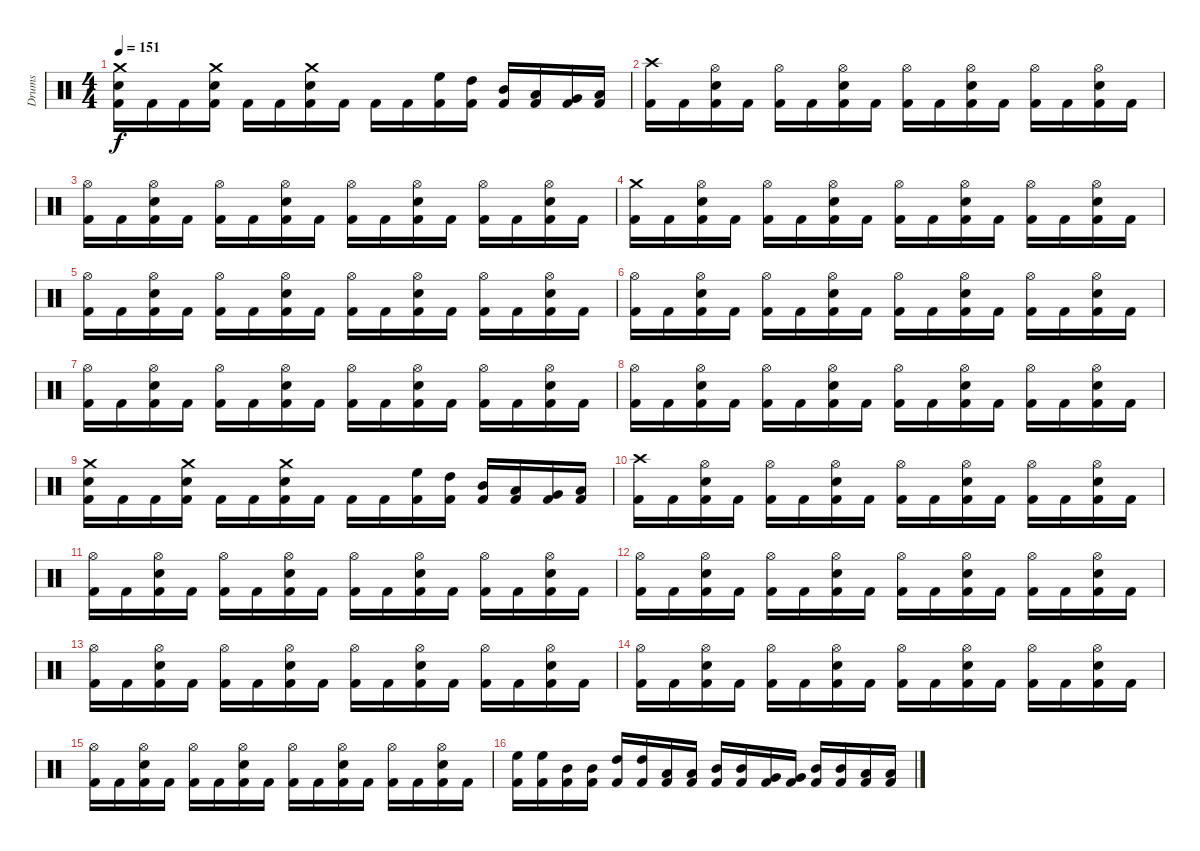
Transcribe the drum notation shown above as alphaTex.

\track ("Drums" "Drums") {instrument percussion}
\staff {score}
\articulation defaults
\ts (4 4)
\tempo 151
\clef neutral
\ks c
("Kick (hit) 2" "Snare (hit) 2" "Crash medium (hit)").16{dy f} "Kick (hit) 2".16 "Kick (hit) 2".16 ("Kick (hit) 2" "Snare (hit) 2" "Crash medium (hit)").16 "Kick (hit) 2".16 "Kick (hit) 2".16 ("Kick (hit) 2" "Snare (hit) 2" "Crash medium (hit)").16 "Kick (hit) 2".16 "Kick (hit) 2".16 "Kick (hit) 2".16 ("Kick (hit) 2" "High Floor Tom (hit)").16 ("Kick (hit) 2" "High Tom (hit)").16 ("Kick (hit) 2" "Mid Tom (hit)").16 ("Kick (hit) 2" "Low Tom (hit)").16 ("Kick (hit) 2" "Very Low Tom (hit)").16 ("Kick (hit) 2" "Low Floor Tom (hit)").16 |
("Kick (hit) 2" "Crash high (hit)").16 "Kick (hit) 2".16 ("Kick (hit) 2" "Snare (hit) 2" "Hi-Hat (open)").16 "Kick (hit) 2".16 ("Kick (hit) 2" "Hi-Hat (open)").16 "Kick (hit) 2".16 ("Kick (hit) 2" "Snare (hit) 2" "Hi-Hat (open)").16 "Kick (hit) 2".16 ("Kick (hit) 2" "Hi-Hat (open)").16 "Kick (hit) 2".16 ("Kick (hit) 2" "Snare (hit) 2" "Hi-Hat (open)").16 "Kick (hit) 2".16 ("Kick (hit) 2" "Hi-Hat (open)").16 "Kick (hit) 2".16 ("Kick (hit) 2" "Snare (hit) 2" "Hi-Hat (open)").16 "Kick (hit) 2".16 |
("Kick (hit) 2" "Hi-Hat (open)").16 "Kick (hit) 2".16 ("Kick (hit) 2" "Snare (hit) 2" "Hi-Hat (open)").16 "Kick (hit) 2".16 ("Kick (hit) 2" "Hi-Hat (open)").16 "Kick (hit) 2".16 ("Kick (hit) 2" "Snare (hit) 2" "Hi-Hat (open)").16 "Kick (hit) 2".16 ("Kick (hit) 2" "Hi-Hat (open)").16 "Kick (hit) 2".16 ("Kick (hit) 2" "Snare (hit) 2" "Hi-Hat (open)").16 "Kick (hit) 2".16 ("Kick (hit) 2" "Hi-Hat (open)").16 "Kick (hit) 2".16 ("Kick (hit) 2" "Snare (hit) 2" "Hi-Hat (open)").16 "Kick (hit) 2".16 |
("Kick (hit) 2" "Crash medium (hit)").16 "Kick (hit) 2".16 ("Kick (hit) 2" "Snare (hit) 2" "Hi-Hat (open)").16 "Kick (hit) 2".16 ("Kick (hit) 2" "Hi-Hat (open)").16 "Kick (hit) 2".16 ("Kick (hit) 2" "Snare (hit) 2" "Hi-Hat (open)").16 "Kick (hit) 2".16 ("Kick (hit) 2" "Hi-Hat (open)").16 "Kick (hit) 2".16 ("Kick (hit) 2" "Snare (hit) 2" "Hi-Hat (open)").16 "Kick (hit) 2".16 ("Kick (hit) 2" "Hi-Hat (open)").16 "Kick (hit) 2".16 ("Kick (hit) 2" "Snare (hit) 2" "Hi-Hat (open)").16 "Kick (hit) 2".16 |
("Kick (hit) 2" "Hi-Hat (open)").16 "Kick (hit) 2".16 ("Kick (hit) 2" "Snare (hit) 2" "Hi-Hat (open)").16 "Kick (hit) 2".16 ("Kick (hit) 2" "Hi-Hat (open)").16 "Kick (hit) 2".16 ("Kick (hit) 2" "Snare (hit) 2" "Hi-Hat (open)").16 "Kick (hit) 2".16 ("Kick (hit) 2" "Hi-Hat (open)").16 "Kick (hit) 2".16 ("Kick (hit) 2" "Snare (hit) 2" "Hi-Hat (open)").16 "Kick (hit) 2".16 ("Kick (hit) 2" "Hi-Hat (open)").16 "Kick (hit) 2".16 ("Kick (hit) 2" "Snare (hit) 2" "Hi-Hat (open)").16 "Kick (hit) 2".16 |
("Kick (hit) 2" "Hi-Hat (open)").16 "Kick (hit) 2".16 ("Kick (hit) 2" "Snare (hit) 2" "Hi-Hat (open)").16 "Kick (hit) 2".16 ("Kick (hit) 2" "Hi-Hat (open)").16 "Kick (hit) 2".16 ("Kick (hit) 2" "Snare (hit) 2" "Hi-Hat (open)").16 "Kick (hit) 2".16 ("Kick (hit) 2" "Hi-Hat (open)").16 "Kick (hit) 2".16 ("Kick (hit) 2" "Snare (hit) 2" "Hi-Hat (open)").16 "Kick (hit) 2".16 ("Kick (hit) 2" "Hi-Hat (open)").16 "Kick (hit) 2".16 ("Kick (hit) 2" "Snare (hit) 2" "Hi-Hat (open)").16 "Kick (hit) 2".16 |
("Kick (hit) 2" "Hi-Hat (open)").16 "Kick (hit) 2".16 ("Kick (hit) 2" "Snare (hit) 2" "Hi-Hat (open)").16 "Kick (hit) 2".16 ("Kick (hit) 2" "Hi-Hat (open)").16 "Kick (hit) 2".16 ("Kick (hit) 2" "Snare (hit) 2" "Hi-Hat (open)").16 "Kick (hit) 2".16 ("Kick (hit) 2" "Hi-Hat (open)").16 "Kick (hit) 2".16 ("Kick (hit) 2" "Snare (hit) 2" "Hi-Hat (open)").16 "Kick (hit) 2".16 ("Kick (hit) 2" "Hi-Hat (open)").16 "Kick (hit) 2".16 ("Kick (hit) 2" "Snare (hit) 2" "Hi-Hat (open)").16 "Kick (hit) 2".16 |
("Kick (hit) 2" "Hi-Hat (open)").16 "Kick (hit) 2".16 ("Kick (hit) 2" "Snare (hit) 2" "Hi-Hat (open)").16 "Kick (hit) 2".16 ("Kick (hit) 2" "Hi-Hat (open)").16 "Kick (hit) 2".16 ("Kick (hit) 2" "Snare (hit) 2" "Hi-Hat (open)").16 "Kick (hit) 2".16 ("Kick (hit) 2" "Hi-Hat (open)").16 "Kick (hit) 2".16 ("Kick (hit) 2" "Snare (hit) 2" "Hi-Hat (open)").16 "Kick (hit) 2".16 ("Kick (hit) 2" "Hi-Hat (open)").16 "Kick (hit) 2".16 ("Kick (hit) 2" "Snare (hit) 2" "Hi-Hat (open)").16 "Kick (hit) 2".16 |
("Kick (hit) 2" "Snare (hit) 2" "Crash medium (hit)").16 "Kick (hit) 2".16 "Kick (hit) 2".16 ("Kick (hit) 2" "Snare (hit) 2" "Crash medium (hit)").16 "Kick (hit) 2".16 "Kick (hit) 2".16 ("Kick (hit) 2" "Snare (hit) 2" "Crash medium (hit)").16 "Kick (hit) 2".16 "Kick (hit) 2".16 "Kick (hit) 2".16 ("Kick (hit) 2" "High Floor Tom (hit)").16 ("Kick (hit) 2" "High Tom (hit)").16 ("Kick (hit) 2" "Mid Tom (hit)").16 ("Kick (hit) 2" "Low Tom (hit)").16 ("Kick (hit) 2" "Very Low Tom (hit)").16 ("Kick (hit) 2" "Low Floor Tom (hit)").16 |
\section ("" "")
("Kick (hit) 2" "Crash high (hit)").16 "Kick (hit) 2".16 ("Kick (hit) 2" "Snare (hit) 2" "Hi-Hat (open)").16 "Kick (hit) 2".16 ("Kick (hit) 2" "Hi-Hat (open)").16 "Kick (hit) 2".16 ("Kick (hit) 2" "Snare (hit) 2" "Hi-Hat (open)").16 "Kick (hit) 2".16 ("Kick (hit) 2" "Hi-Hat (open)").16 "Kick (hit) 2".16 ("Kick (hit) 2" "Snare (hit) 2" "Hi-Hat (open)").16 "Kick (hit) 2".16 ("Kick (hit) 2" "Hi-Hat (open)").16 "Kick (hit) 2".16 ("Kick (hit) 2" "Snare (hit) 2" "Hi-Hat (open)").16 "Kick (hit) 2".16 |
("Kick (hit) 2" "Hi-Hat (open)").16 "Kick (hit) 2".16 ("Kick (hit) 2" "Snare (hit) 2" "Hi-Hat (open)").16 "Kick (hit) 2".16 ("Kick (hit) 2" "Hi-Hat (open)").16 "Kick (hit) 2".16 ("Kick (hit) 2" "Snare (hit) 2" "Hi-Hat (open)").16 "Kick (hit) 2".16 ("Kick (hit) 2" "Hi-Hat (open)").16 "Kick (hit) 2".16 ("Kick (hit) 2" "Snare (hit) 2" "Hi-Hat (open)").16 "Kick (hit) 2".16 ("Kick (hit) 2" "Hi-Hat (open)").16 "Kick (hit) 2".16 ("Kick (hit) 2" "Snare (hit) 2" "Hi-Hat (open)").16 "Kick (hit) 2".16 |
("Kick (hit) 2" "Hi-Hat (open)").16 "Kick (hit) 2".16 ("Kick (hit) 2" "Snare (hit) 2" "Hi-Hat (open)").16 "Kick (hit) 2".16 ("Kick (hit) 2" "Hi-Hat (open)").16 "Kick (hit) 2".16 ("Kick (hit) 2" "Snare (hit) 2" "Hi-Hat (open)").16 "Kick (hit) 2".16 ("Kick (hit) 2" "Hi-Hat (open)").16 "Kick (hit) 2".16 ("Kick (hit) 2" "Snare (hit) 2" "Hi-Hat (open)").16 "Kick (hit) 2".16 ("Kick (hit) 2" "Hi-Hat (open)").16 "Kick (hit) 2".16 ("Kick (hit) 2" "Snare (hit) 2" "Hi-Hat (open)").16 "Kick (hit) 2".16 |
("Kick (hit) 2" "Hi-Hat (open)").16 "Kick (hit) 2".16 ("Kick (hit) 2" "Snare (hit) 2" "Hi-Hat (open)").16 "Kick (hit) 2".16 ("Kick (hit) 2" "Hi-Hat (open)").16 "Kick (hit) 2".16 ("Kick (hit) 2" "Snare (hit) 2" "Hi-Hat (open)").16 "Kick (hit) 2".16 ("Kick (hit) 2" "Hi-Hat (open)").16 "Kick (hit) 2".16 ("Kick (hit) 2" "Snare (hit) 2" "Hi-Hat (open)").16 "Kick (hit) 2".16 ("Kick (hit) 2" "Hi-Hat (open)").16 "Kick (hit) 2".16 ("Kick (hit) 2" "Snare (hit) 2" "Hi-Hat (open)").16 "Kick (hit) 2".16 |
("Kick (hit) 2" "Hi-Hat (open)").16 "Kick (hit) 2".16 ("Kick (hit) 2" "Snare (hit) 2" "Hi-Hat (open)").16 "Kick (hit) 2".16 ("Kick (hit) 2" "Hi-Hat (open)").16 "Kick (hit) 2".16 ("Kick (hit) 2" "Snare (hit) 2" "Hi-Hat (open)").16 "Kick (hit) 2".16 ("Kick (hit) 2" "Hi-Hat (open)").16 "Kick (hit) 2".16 ("Kick (hit) 2" "Snare (hit) 2" "Hi-Hat (open)").16 "Kick (hit) 2".16 ("Kick (hit) 2" "Hi-Hat (open)").16 "Kick (hit) 2".16 ("Kick (hit) 2" "Snare (hit) 2" "Hi-Hat (open)").16 "Kick (hit) 2".16 |
("Kick (hit) 2" "Hi-Hat (open)").16 "Kick (hit) 2".16 ("Kick (hit) 2" "Snare (hit) 2" "Hi-Hat (open)").16 "Kick (hit) 2".16 ("Kick (hit) 2" "Hi-Hat (open)").16 "Kick (hit) 2".16 ("Kick (hit) 2" "Snare (hit) 2" "Hi-Hat (open)").16 "Kick (hit) 2".16 ("Kick (hit) 2" "Hi-Hat (open)").16 "Kick (hit) 2".16 ("Kick (hit) 2" "Snare (hit) 2" "Hi-Hat (open)").16 "Kick (hit) 2".16 ("Kick (hit) 2" "Hi-Hat (open)").16 "Kick (hit) 2".16 ("Kick (hit) 2" "Snare (hit) 2" "Hi-Hat (open)").16 "Kick (hit) 2".16 |
("Kick (hit) 2" "High Floor Tom (hit)").16 ("Kick (hit) 2" "High Floor Tom (hit)").16 ("Kick (hit) 2" "Mid Tom (hit)").16 ("Kick (hit) 2" "Mid Tom (hit)").16 ("Kick (hit) 2" "High Tom (hit)").16 ("Kick (hit) 2" "High Tom (hit)").16 ("Kick (hit) 2" "Low Tom (hit)").16 ("Kick (hit) 2" "Low Tom (hit)").16 ("Kick (hit) 2" "Mid Tom (hit)").16 ("Kick (hit) 2" "Mid Tom (hit)").16 ("Kick (hit) 2" "Very Low Tom (hit)").16 ("Kick (hit) 2" "Very Low Tom (hit)").16 ("Kick (hit) 2" "Mid Tom (hit)").16 ("Kick (hit) 2" "Mid Tom (hit)").16 ("Kick (hit) 2" "Low Floor Tom (hit)").16 ("Kick (hit) 2" "Low Floor Tom (hit)").16
